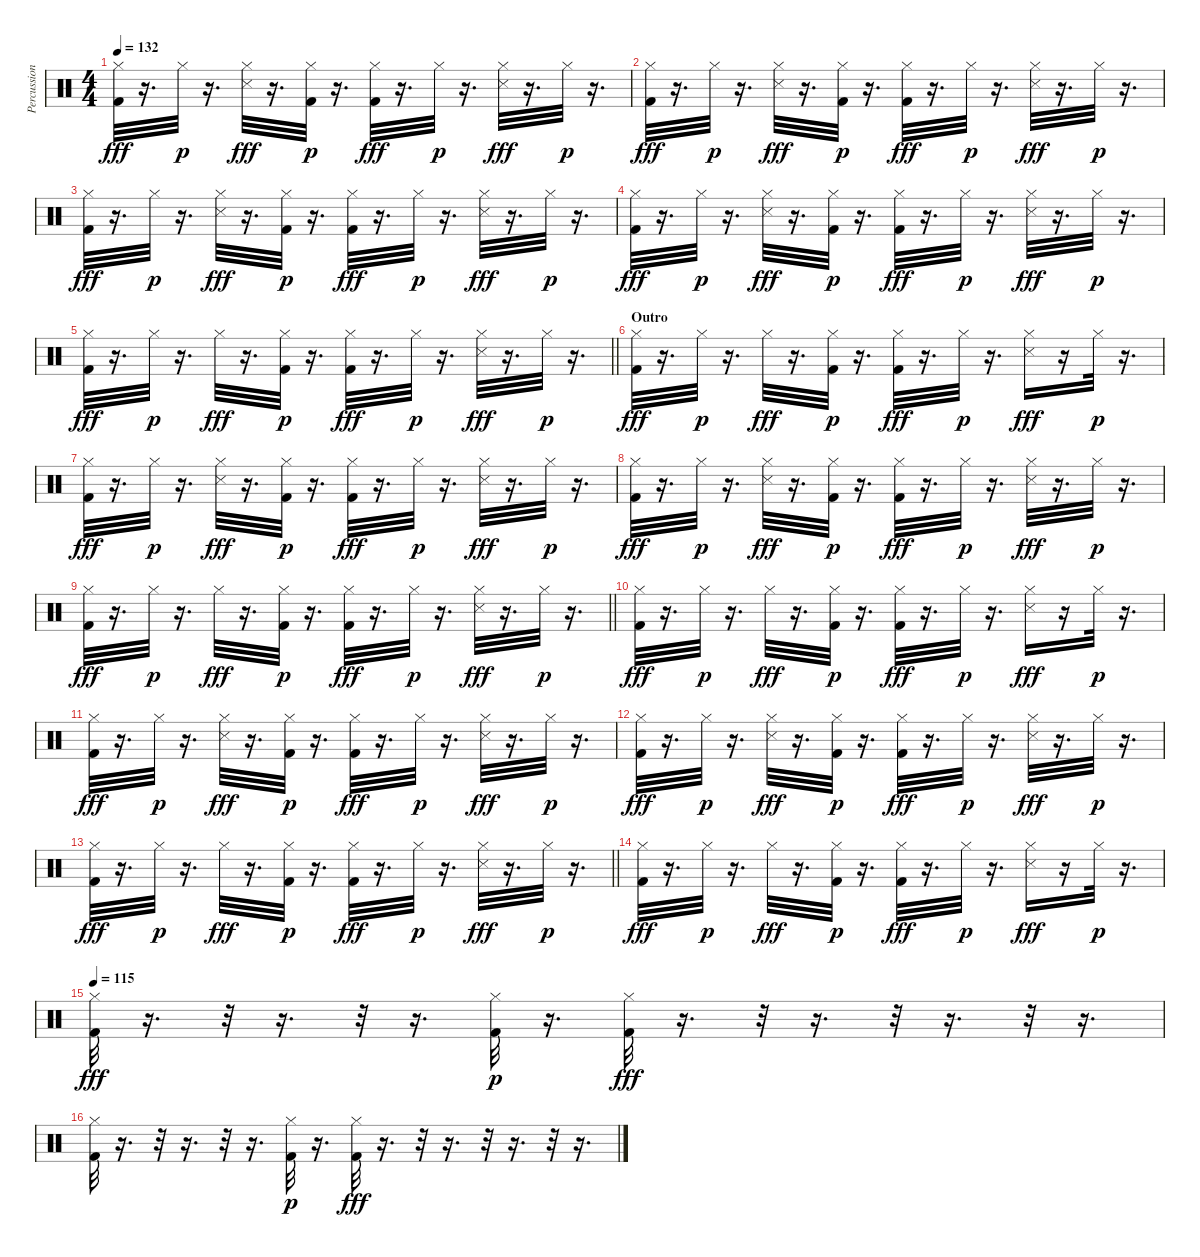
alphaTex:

\track ("Percussion" "Percussion") {instrument percussion}
\staff {score}
\articulation defaults
\ts (4 4)
\tempo 132
\clef neutral
\ks c
("Kick (hit) 2" "Hi-Hat (closed)").32{dy fff} r.16{d} "Hi-Hat (closed)".32{dy p} r.16{d} ("Hi-Hat (closed)" "Snare (side stick) 3").32{dy fff} r.16{d} ("Kick (hit) 2" "Hi-Hat (closed)").32{dy p} r.16{d} ("Kick (hit) 2" "Hi-Hat (closed)").32{dy fff} r.16{d} "Hi-Hat (closed)".32{dy p} r.16{d} ("Snare (side stick) 3" "Hi-Hat (closed)").32{dy fff} r.16{d} "Hi-Hat (closed)".32{dy p} r.16{d} |
("Kick (hit) 2" "Hi-Hat (closed)").32{dy fff} r.16{d} "Hi-Hat (closed)".32{dy p} r.16{d} ("Snare (side stick) 3" "Hi-Hat (closed)").32{dy fff} r.16{d} ("Kick (hit) 2" "Hi-Hat (closed)").32{dy p} r.16{d} ("Kick (hit) 2" "Hi-Hat (closed)").32{dy fff} r.16{d} "Hi-Hat (closed)".32{dy p} r.16{d} ("Hi-Hat (closed)" "Snare (side stick) 3").32{dy fff} r.16{d} "Hi-Hat (closed)".32{dy p} r.16{d} |
("Kick (hit) 2" "Hi-Hat (closed)").32{dy fff} r.16{d} "Hi-Hat (closed)".32{dy p} r.16{d} ("Hi-Hat (closed)" "Snare (side stick) 3").32{dy fff} r.16{d} ("Kick (hit) 2" "Hi-Hat (closed)").32{dy p} r.16{d} ("Kick (hit) 2" "Hi-Hat (closed)").32{dy fff} r.16{d} "Hi-Hat (closed)".32{dy p} r.16{d} ("Snare (side stick) 3" "Hi-Hat (closed)").32{dy fff} r.16{d} "Hi-Hat (closed)".32{dy p} r.16{d} |
("Kick (hit) 2" "Hi-Hat (closed)").32{dy fff} r.16{d} "Hi-Hat (closed)".32{dy p} r.16{d} ("Snare (side stick) 3" "Hi-Hat (closed)").32{dy fff} r.16{d} ("Kick (hit) 2" "Hi-Hat (closed)").32{dy p} r.16{d} ("Kick (hit) 2" "Hi-Hat (closed)").32{dy fff} r.16{d} "Hi-Hat (closed)".32{dy p} r.16{d} ("Hi-Hat (closed)" "Snare (side stick) 3").32{dy fff} r.16{d} "Hi-Hat (closed)".32{dy p} r.16{d} |
\barLineRight lightlight
("Kick (hit) 2" "Hi-Hat (closed)").32{dy fff} r.16{d} "Hi-Hat (closed)".32{dy p} r.16{d} "Hi-Hat (closed)".32{dy fff} r.16{d} ("Kick (hit) 2" "Hi-Hat (closed)").32{dy p} r.16{d} ("Kick (hit) 2" "Hi-Hat (closed)").32{dy fff} r.16{d} "Hi-Hat (closed)".32{dy p} r.16{d} ("Snare (side stick) 3" "Hi-Hat (closed)").32{dy fff} r.16{d} "Hi-Hat (closed)".32{dy p} r.16{d} |
\section ("" "Outro")
("Kick (hit) 2" "Hi-Hat (closed)").32{dy fff} r.16{d} "Hi-Hat (closed)".32{dy p} r.16{d} "Hi-Hat (closed)".32{dy fff} r.16{d} ("Kick (hit) 2" "Hi-Hat (closed)").32{dy p} r.16{d} ("Kick (hit) 2" "Hi-Hat (closed)").32{dy fff} r.16{d} "Hi-Hat (closed)".32{dy p} r.16{d} ("Snare (side stick) 3" "Hi-Hat (closed)").16{dy fff} r.16 "Hi-Hat (closed)".32{dy p} r.16{d} |
("Kick (hit) 2" "Hi-Hat (closed)").32{dy fff} r.16{d} "Hi-Hat (closed)".32{dy p} r.16{d} ("Hi-Hat (closed)" "Snare (side stick) 3").32{dy fff} r.16{d} ("Kick (hit) 2" "Hi-Hat (closed)").32{dy p} r.16{d} ("Kick (hit) 2" "Hi-Hat (closed)").32{dy fff} r.16{d} "Hi-Hat (closed)".32{dy p} r.16{d} ("Snare (side stick) 3" "Hi-Hat (closed)").32{dy fff} r.16{d} "Hi-Hat (closed)".32{dy p} r.16{d} |
("Kick (hit) 2" "Hi-Hat (closed)").32{dy fff} r.16{d} "Hi-Hat (closed)".32{dy p} r.16{d} ("Snare (side stick) 3" "Hi-Hat (closed)").32{dy fff} r.16{d} ("Kick (hit) 2" "Hi-Hat (closed)").32{dy p} r.16{d} ("Kick (hit) 2" "Hi-Hat (closed)").32{dy fff} r.16{d} "Hi-Hat (closed)".32{dy p} r.16{d} ("Hi-Hat (closed)" "Snare (side stick) 3").32{dy fff} r.16{d} "Hi-Hat (closed)".32{dy p} r.16{d} |
\barLineRight lightlight
("Kick (hit) 2" "Hi-Hat (closed)").32{dy fff} r.16{d} "Hi-Hat (closed)".32{dy p} r.16{d} "Hi-Hat (closed)".32{dy fff} r.16{d} ("Kick (hit) 2" "Hi-Hat (closed)").32{dy p} r.16{d} ("Kick (hit) 2" "Hi-Hat (closed)").32{dy fff} r.16{d} "Hi-Hat (closed)".32{dy p} r.16{d} ("Snare (side stick) 3" "Hi-Hat (closed)").32{dy fff} r.16{d} "Hi-Hat (closed)".32{dy p} r.16{d} |
("Kick (hit) 2" "Hi-Hat (closed)").32{dy fff} r.16{d} "Hi-Hat (closed)".32{dy p} r.16{d} "Hi-Hat (closed)".32{dy fff} r.16{d} ("Kick (hit) 2" "Hi-Hat (closed)").32{dy p} r.16{d} ("Kick (hit) 2" "Hi-Hat (closed)").32{dy fff} r.16{d} "Hi-Hat (closed)".32{dy p} r.16{d} ("Snare (side stick) 3" "Hi-Hat (closed)").16{dy fff} r.16 "Hi-Hat (closed)".32{dy p} r.16{d} |
("Kick (hit) 2" "Hi-Hat (closed)").32{dy fff} r.16{d} "Hi-Hat (closed)".32{dy p} r.16{d} ("Hi-Hat (closed)" "Snare (side stick) 3").32{dy fff} r.16{d} ("Kick (hit) 2" "Hi-Hat (closed)").32{dy p} r.16{d} ("Kick (hit) 2" "Hi-Hat (closed)").32{dy fff} r.16{d} "Hi-Hat (closed)".32{dy p} r.16{d} ("Snare (side stick) 3" "Hi-Hat (closed)").32{dy fff} r.16{d} "Hi-Hat (closed)".32{dy p} r.16{d} |
("Kick (hit) 2" "Hi-Hat (closed)").32{dy fff} r.16{d} "Hi-Hat (closed)".32{dy p} r.16{d} ("Snare (side stick) 3" "Hi-Hat (closed)").32{dy fff} r.16{d} ("Kick (hit) 2" "Hi-Hat (closed)").32{dy p} r.16{d} ("Kick (hit) 2" "Hi-Hat (closed)").32{dy fff} r.16{d} "Hi-Hat (closed)".32{dy p} r.16{d} ("Hi-Hat (closed)" "Snare (side stick) 3").32{dy fff} r.16{d} "Hi-Hat (closed)".32{dy p} r.16{d} |
\barLineRight lightlight
("Kick (hit) 2" "Hi-Hat (closed)").32{dy fff} r.16{d} "Hi-Hat (closed)".32{dy p} r.16{d} "Hi-Hat (closed)".32{dy fff} r.16{d} ("Kick (hit) 2" "Hi-Hat (closed)").32{dy p} r.16{d} ("Kick (hit) 2" "Hi-Hat (closed)").32{dy fff} r.16{d} "Hi-Hat (closed)".32{dy p} r.16{d} ("Snare (side stick) 3" "Hi-Hat (closed)").32{dy fff} r.16{d} "Hi-Hat (closed)".32{dy p} r.16{d} |
("Kick (hit) 2" "Hi-Hat (closed)").32{dy fff} r.16{d} "Hi-Hat (closed)".32{dy p} r.16{d} "Hi-Hat (closed)".32{dy fff} r.16{d} ("Kick (hit) 2" "Hi-Hat (closed)").32{dy p} r.16{d} ("Kick (hit) 2" "Hi-Hat (closed)").32{dy fff} r.16{d} "Hi-Hat (closed)".32{dy p} r.16{d} ("Snare (side stick) 3" "Hi-Hat (closed)").16{dy fff} r.16 "Hi-Hat (closed)".32{dy p} r.16{d} |
\tempo 115
("Kick (hit) 2" "Hi-Hat (closed)").32{dy fff} r.16{d} r.32 r.16{d} r.32 r.16{d} ("Kick (hit) 2" "Hi-Hat (closed)").32{dy p} r.16{d} ("Kick (hit) 2" "Hi-Hat (closed)").32{dy fff} r.16{d} r.32 r.16{d} r.32 r.16{d} r.32 r.16{d} |
("Kick (hit) 2" "Hi-Hat (closed)").32 r.16{d} r.32 r.16{d} r.32 r.16{d} ("Kick (hit) 2" "Hi-Hat (closed)").32{dy p} r.16{d} ("Kick (hit) 2" "Hi-Hat (closed)").32{dy fff} r.16{d} r.32 r.16{d} r.32 r.16{d} r.32 r.16{d}
